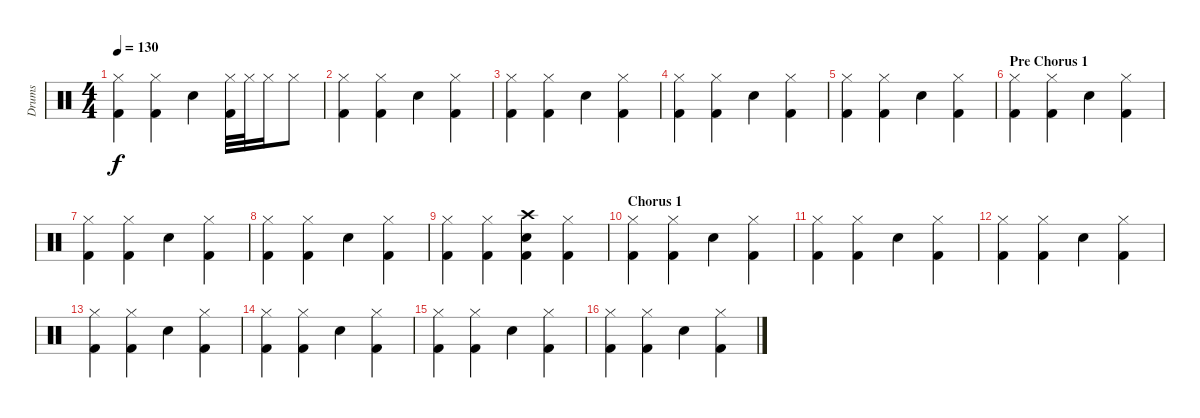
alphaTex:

\track ("Drums" "Drums") {instrument percussion}
\staff {score}
\articulation defaults
\ts (4 4)
\tempo 130
\clef neutral
\ks c
("Kick (hit) 2" "Hi-Hat (closed)").4{dy f} ("Kick (hit) 2" "Hi-Hat (closed)").4 "Electric Snare (hit)".4 ("Kick (hit) 2" "Hi-Hat (closed)").32 "Hi-Hat (closed)".32 "Hi-Hat (closed)".16 "Hi-Hat (closed)".8 |
("Kick (hit) 2" "Hi-Hat (closed)").4 ("Kick (hit) 2" "Hi-Hat (closed)").4 "Electric Snare (hit)".4 ("Kick (hit) 2" "Hi-Hat (closed)").4 |
("Kick (hit) 2" "Hi-Hat (closed)").4 ("Kick (hit) 2" "Hi-Hat (closed)").4 "Electric Snare (hit)".4 ("Kick (hit) 2" "Hi-Hat (closed)").4 |
("Kick (hit) 2" "Hi-Hat (closed)").4 ("Kick (hit) 2" "Hi-Hat (closed)").4 "Electric Snare (hit)".4 ("Kick (hit) 2" "Hi-Hat (closed)").4 |
("Kick (hit) 2" "Hi-Hat (closed)").4 ("Kick (hit) 2" "Hi-Hat (closed)").4 "Electric Snare (hit)".4 ("Kick (hit) 2" "Hi-Hat (closed)").4 |
\section ("" "Pre Chorus 1")
("Kick (hit) 2" "Hi-Hat (closed)").4 ("Kick (hit) 2" "Hi-Hat (closed)").4 "Electric Snare (hit)".4 ("Kick (hit) 2" "Hi-Hat (closed)").4 |
("Kick (hit) 2" "Hi-Hat (closed)").4 ("Kick (hit) 2" "Hi-Hat (closed)").4 "Electric Snare (hit)".4 ("Kick (hit) 2" "Hi-Hat (closed)").4 |
("Kick (hit) 2" "Hi-Hat (closed)").4 ("Kick (hit) 2" "Hi-Hat (closed)").4 "Electric Snare (hit)".4 ("Kick (hit) 2" "Hi-Hat (closed)").4 |
("Kick (hit) 2" "Hi-Hat (closed)").4 ("Kick (hit) 2" "Hi-Hat (closed)").4 ("Electric Snare (hit)" "Kick (hit) 2" "Crash high (hit)").4 ("Kick (hit) 2" "Hi-Hat (closed)").4 |
\section ("" "Chorus 1")
("Kick (hit) 2" "Hi-Hat (closed)").4 ("Kick (hit) 2" "Hi-Hat (closed)").4 "Electric Snare (hit)".4 ("Kick (hit) 2" "Hi-Hat (closed)").4 |
("Kick (hit) 2" "Hi-Hat (closed)").4 ("Kick (hit) 2" "Hi-Hat (closed)").4 "Electric Snare (hit)".4 ("Kick (hit) 2" "Hi-Hat (closed)").4 |
("Kick (hit) 2" "Hi-Hat (closed)").4 ("Kick (hit) 2" "Hi-Hat (closed)").4 "Electric Snare (hit)".4 ("Kick (hit) 2" "Hi-Hat (closed)").4 |
("Kick (hit) 2" "Hi-Hat (closed)").4 ("Kick (hit) 2" "Hi-Hat (closed)").4 "Electric Snare (hit)".4 ("Kick (hit) 2" "Hi-Hat (closed)").4 |
("Kick (hit) 2" "Hi-Hat (closed)").4 ("Kick (hit) 2" "Hi-Hat (closed)").4 "Electric Snare (hit)".4 ("Kick (hit) 2" "Hi-Hat (closed)").4 |
("Kick (hit) 2" "Hi-Hat (closed)").4 ("Kick (hit) 2" "Hi-Hat (closed)").4 "Electric Snare (hit)".4 ("Kick (hit) 2" "Hi-Hat (closed)").4 |
("Kick (hit) 2" "Hi-Hat (closed)").4 ("Kick (hit) 2" "Hi-Hat (closed)").4 "Electric Snare (hit)".4 ("Kick (hit) 2" "Hi-Hat (closed)").4
